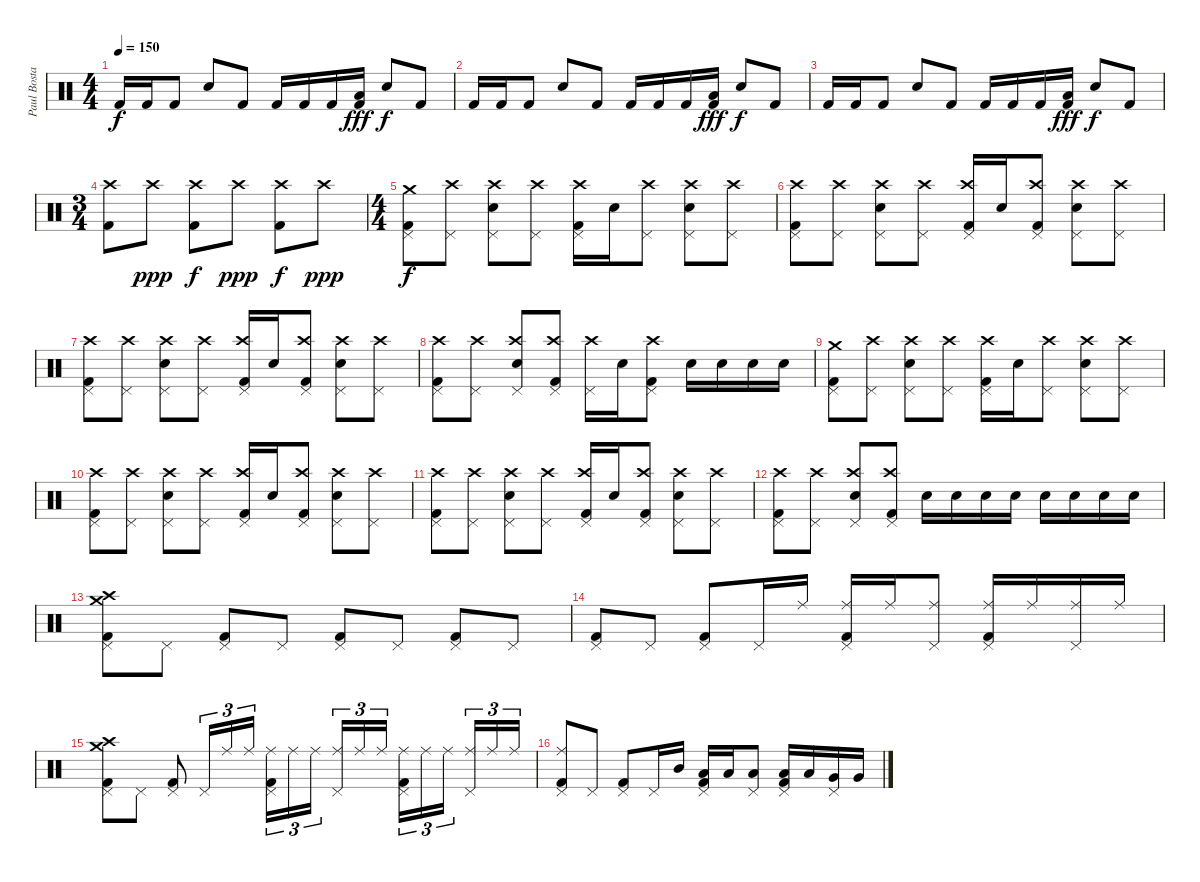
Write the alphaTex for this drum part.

\track ("Paul Bostaph" "Paul Bosta") {instrument percussion}
\staff {score}
\articulation defaults
\ts (4 4)
\tempo 150
\clef neutral
\ks c "Kick (hit) 2".16{dy f} "Kick (hit) 2".16 "Kick (hit) 2".8 "Electric Snare (hit)".8 "Kick (hit) 2".8 "Kick (hit) 2".16 "Kick (hit) 2".16 "Kick (hit) 2".16
("Low Tom (hit)" "Kick (hit) 2").16{dy fff} "Electric Snare (hit)".8{dy f} "Kick (hit) 2".8 |
"Kick (hit) 2".16 "Kick (hit) 2".16 "Kick (hit) 2".8 "Electric Snare (hit)".8 "Kick (hit) 2".8 "Kick (hit) 2".16 "Kick (hit) 2".16 "Kick (hit) 2".16 ("Low Tom (hit)" "Kick (hit) 2").16{dy fff} "Electric Snare (hit)".8{dy f} "Kick (hit) 2".8 |
"Kick (hit) 2".16 "Kick (hit) 2".16 "Kick (hit) 2".8 "Electric Snare (hit)".8 "Kick (hit) 2".8 "Kick (hit) 2".16 "Kick (hit) 2".16 "Kick (hit) 2".16 ("Low Tom (hit)" "Kick (hit) 2").16{dy fff} "Electric Snare (hit)".8{dy f} "Kick (hit) 2".8 |
\ts (3 4)
("Crash high (hit)" "Kick (hit) 2").8 "Crash high (hit)".8{dy ppp} ("Crash high (hit)" "Kick (hit) 2").8{dy f} "Crash high (hit)".8{dy ppp} ("Crash high (hit)" "Kick (hit) 2").8{dy f} "Crash high (hit)".8{dy ppp} |
\ts (4 4)
("Pedal Hi-Hat (hit)" "Crash medium (hit)" "Kick (hit) 2").8{dy f} ("Pedal Hi-Hat (hit)" "Crash high (hit)").8 ("Pedal Hi-Hat (hit)" "Crash high (hit)" "Electric Snare (hit)").8 ("Pedal Hi-Hat (hit)" "Crash high (hit)").8 ("Pedal Hi-Hat (hit)" "Crash high (hit)" "Kick (hit) 2").16 "Electric Snare (hit)".16 ("Pedal Hi-Hat (hit)" "Crash high (hit)").8 ("Pedal Hi-Hat (hit)" "Crash high (hit)" "Electric Snare (hit)").8 ("Pedal Hi-Hat (hit)" "Crash high (hit)").8 |
("Pedal Hi-Hat (hit)" "Crash high (hit)" "Kick (hit) 2").8 ("Pedal Hi-Hat (hit)" "Crash high (hit)").8 ("Pedal Hi-Hat (hit)" "Crash high (hit)" "Electric Snare (hit)").8 ("Pedal Hi-Hat (hit)" "Crash high (hit)").8 ("Pedal Hi-Hat (hit)" "Crash high (hit)" "Kick (hit) 2").16 "Electric Snare (hit)".16 ("Pedal Hi-Hat (hit)" "Crash high (hit)" "Kick (hit) 2").8 ("Pedal Hi-Hat (hit)" "Crash high (hit)" "Electric Snare (hit)").8 ("Pedal Hi-Hat (hit)" "Crash high (hit)").8 |
("Pedal Hi-Hat (hit)" "Crash high (hit)" "Kick (hit) 2").8 ("Pedal Hi-Hat (hit)" "Crash high (hit)").8 ("Pedal Hi-Hat (hit)" "Crash high (hit)" "Electric Snare (hit)").8 ("Pedal Hi-Hat (hit)" "Crash high (hit)").8 ("Pedal Hi-Hat (hit)" "Crash high (hit)" "Kick (hit) 2").16 "Electric Snare (hit)".16 ("Pedal Hi-Hat (hit)" "Crash high (hit)" "Kick (hit) 2").8 ("Pedal Hi-Hat (hit)" "Crash high (hit)" "Electric Snare (hit)").8 ("Pedal Hi-Hat (hit)" "Crash high (hit)").8 |
("Pedal Hi-Hat (hit)" "Crash high (hit)" "Kick (hit) 2").8 ("Pedal Hi-Hat (hit)" "Crash high (hit)").8 ("Pedal Hi-Hat (hit)" "Crash high (hit)" "Electric Snare (hit)").8 ("Pedal Hi-Hat (hit)" "Crash high (hit)" "Kick (hit) 2").8 ("Pedal Hi-Hat (hit)" "Crash high (hit)").16 "Electric Snare (hit)".16 ("Pedal Hi-Hat (hit)" "Crash high (hit)" "Kick (hit) 2").8 "Electric Snare (hit)".16 "Electric Snare (hit)".16 "Electric Snare (hit)".16 "Electric Snare (hit)".16 |
("Pedal Hi-Hat (hit)" "Crash medium (hit)" "Kick (hit) 2").8 ("Pedal Hi-Hat (hit)" "Crash high (hit)").8 ("Pedal Hi-Hat (hit)" "Crash high (hit)" "Electric Snare (hit)").8 ("Pedal Hi-Hat (hit)" "Crash high (hit)").8 ("Pedal Hi-Hat (hit)" "Crash high (hit)" "Kick (hit) 2").16 "Electric Snare (hit)".16 ("Pedal Hi-Hat (hit)" "Crash high (hit)").8 ("Pedal Hi-Hat (hit)" "Crash high (hit)" "Electric Snare (hit)").8 ("Pedal Hi-Hat (hit)" "Crash high (hit)").8 |
("Pedal Hi-Hat (hit)" "Crash high (hit)" "Kick (hit) 2").8 ("Pedal Hi-Hat (hit)" "Crash high (hit)").8 ("Pedal Hi-Hat (hit)" "Crash high (hit)" "Electric Snare (hit)").8 ("Pedal Hi-Hat (hit)" "Crash high (hit)").8 ("Pedal Hi-Hat (hit)" "Crash high (hit)" "Kick (hit) 2").16 "Electric Snare (hit)".16 ("Pedal Hi-Hat (hit)" "Crash high (hit)" "Kick (hit) 2").8 ("Pedal Hi-Hat (hit)" "Crash high (hit)" "Electric Snare (hit)").8 ("Pedal Hi-Hat (hit)" "Crash high (hit)").8 |
("Pedal Hi-Hat (hit)" "Crash high (hit)" "Kick (hit) 2").8 ("Pedal Hi-Hat (hit)" "Crash high (hit)").8 ("Pedal Hi-Hat (hit)" "Crash high (hit)" "Electric Snare (hit)").8 ("Pedal Hi-Hat (hit)" "Crash high (hit)").8 ("Pedal Hi-Hat (hit)" "Crash high (hit)" "Kick (hit) 2").16 "Electric Snare (hit)".16 ("Pedal Hi-Hat (hit)" "Crash high (hit)" "Kick (hit) 2").8 ("Pedal Hi-Hat (hit)" "Crash high (hit)" "Electric Snare (hit)").8 ("Pedal Hi-Hat (hit)" "Crash high (hit)").8 |
("Pedal Hi-Hat (hit)" "Crash high (hit)" "Kick (hit) 2").8 ("Pedal Hi-Hat (hit)" "Crash high (hit)").8 ("Pedal Hi-Hat (hit)" "Crash high (hit)" "Electric Snare (hit)").8 ("Pedal Hi-Hat (hit)" "Crash high (hit)" "Kick (hit) 2").8 "Electric Snare (hit)".16 "Electric Snare (hit)".16 "Electric Snare (hit)".16 "Electric Snare (hit)".16 "Electric Snare (hit)".16 "Electric Snare (hit)".16 "Electric Snare (hit)".16 "Electric Snare (hit)".16 |
("Pedal Hi-Hat (hit)" "Crash high (hit)" "Kick (hit) 2" "Crash medium (hit)").8 "Pedal Hi-Hat (hit)".8 ("Pedal Hi-Hat (hit)" "Kick (hit) 2").8 "Pedal Hi-Hat (hit)".8 ("Pedal Hi-Hat (hit)" "Kick (hit) 2").8 "Pedal Hi-Hat (hit)".8 ("Pedal Hi-Hat (hit)" "Kick (hit) 2").8 "Pedal Hi-Hat (hit)".8 |
("Pedal Hi-Hat (hit)" "Kick (hit) 2").8 "Pedal Hi-Hat (hit)".8 ("Pedal Hi-Hat (hit)" "Kick (hit) 2").8 "Pedal Hi-Hat (hit)".16 "Ride (middle)".16 ("Pedal Hi-Hat (hit)" "Kick (hit) 2" "Ride (middle)").16 "Ride (middle)".16 ("Pedal Hi-Hat (hit)" "Ride (middle)").8 ("Pedal Hi-Hat (hit)" "Kick (hit) 2" "Ride (middle)").16 "Ride (middle)".16 ("Pedal Hi-Hat (hit)" "Ride (middle)").16 "Ride (middle)".16 |
("Pedal Hi-Hat (hit)" "Crash high (hit)" "Kick (hit) 2" "Crash medium (hit)").8 "Pedal Hi-Hat (hit)".8 ("Pedal Hi-Hat (hit)" "Kick (hit) 2").8 "Pedal Hi-Hat (hit)".16{tu (3 2)} "Ride (middle)".16{tu (3 2)} "Ride (middle)".16{tu (3 2)} ("Pedal Hi-Hat (hit)" "Kick (hit) 2" "Ride (middle)").16{tu (3 2)} "Ride (middle)".16{tu (3 2)} "Ride (middle)".16{tu (3 2)} ("Pedal Hi-Hat (hit)" "Ride (middle)").16{tu (3 2)} "Ride (middle)".16{tu (3 2)} "Ride (middle)".16{tu (3 2)} ("Pedal Hi-Hat (hit)" "Kick (hit) 2" "Ride (middle)").16{tu (3 2)} "Ride (middle)".16{tu (3 2)} "Ride (middle)".16{tu (3 2)} ("Pedal Hi-Hat (hit)" "Ride (middle)").16{tu (3 2)} "Ride (middle)".16{tu (3 2)} "Ride (middle)".16{tu (3 2)} |
("Pedal Hi-Hat (hit)" "Kick (hit) 2" "Ride (middle)").8 "Pedal Hi-Hat (hit)".8 ("Pedal Hi-Hat (hit)" "Kick (hit) 2").8 "Pedal Hi-Hat (hit)".16 "Mid Tom (hit)".16 ("Pedal Hi-Hat (hit)" "Kick (hit) 2" "Low Tom (hit)").16 "Low Tom (hit)".16 ("Pedal Hi-Hat (hit)" "Low Tom (hit)").8 ("Pedal Hi-Hat (hit)" "Kick (hit) 2" "Low Tom (hit)").16 "Low Tom (hit)".16 ("Pedal Hi-Hat (hit)" "Very Low Tom (hit)").16 "Very Low Tom (hit)".16
